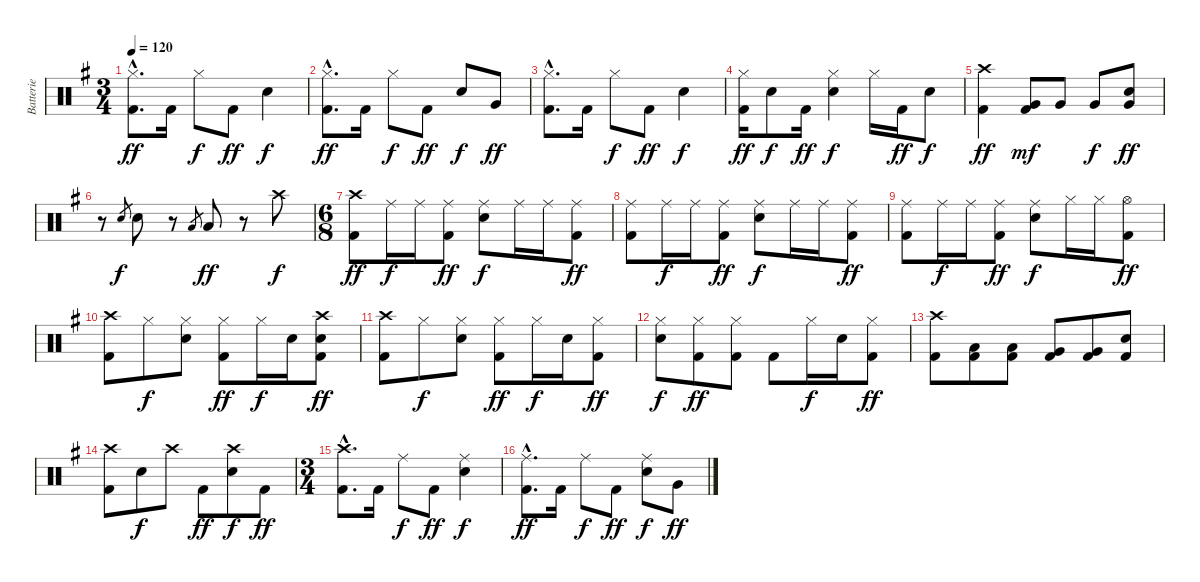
\track ("Batterie" "Batterie") {instrument percussion}
\staff {score}
\articulation defaults
\ts (3 4)
\tempo 120
\clef neutral
\ks g
("Hi-Hat (closed)"{hac} "Kick (hit) 2"{hac}).8{d dy ff} "Kick (hit) 2".16 "Hi-Hat (closed)".8{dy f} "Kick (hit) 2".8{dy ff} "Snare (hit) 2".4{dy f} |
("Hi-Hat (closed)"{hac} "Kick (hit) 2"{hac}).8{d dy ff} "Kick (hit) 2".16 "Hi-Hat (closed)".8{dy f} "Kick (hit) 2".8{dy ff} "Snare (hit) 2".8{dy f} "Very Low Tom (hit)".8{dy ff} |
("Hi-Hat (closed)"{hac} "Kick (hit) 2"{hac}).8{d} "Kick (hit) 2".16 "Hi-Hat (closed)".8{dy f} "Kick (hit) 2".8{dy ff} "Snare (hit) 2".4{dy f} |
("Hi-Hat (closed)" "Kick (hit) 2").16{dy ff} "Snare (hit) 2".8{dy f} "Kick (hit) 2".16{dy ff} ("Hi-Hat (closed)" "Snare (hit) 2").4{dy f} "Hi-Hat (closed)".16 "Kick (hit) 2".16{dy ff} "Snare (hit) 2".8{dy f} |
("Crash high (hit)" "Kick (hit) 2").4{dy ff} ("Very Low Tom (hit)" "Kick (hit) 2").8{dy mf} "Very Low Tom (hit)".8 "Very Low Tom (hit)".8{dy f} ("Snare (hit) 2" "Very Low Tom (hit)").8{dy ff} |
r.8 "Snare (hit) 2".8{gr dy f} "Snare (hit) 2".8 r.8 "Low Tom (hit)".8{gr} "Low Tom (hit)".8{dy ff} r.8 "Crash high (hit)".8{dy f} |
\ts (6 8)
("Crash high (hit)" "Kick (hit) 2").8{dy ff} "Ride (middle)".16{dy f} "Ride (middle)".16 ("Ride (middle)" "Kick (hit) 2").8{dy ff} ("Ride (middle)" "Snare (hit) 2").8{dy f} "Ride (middle)".16 "Ride (middle)".16 ("Ride (middle)" "Kick (hit) 2").8{dy ff} |
("Ride (middle)" "Kick (hit) 2").8 "Ride (middle)".16{dy f} "Ride (middle)".16 ("Ride (middle)" "Kick (hit) 2").8{dy ff} ("Ride (middle)" "Snare (hit) 2").8{dy f} "Ride (middle)".16 "Ride (middle)".16 ("Ride (middle)" "Kick (hit) 2").8{dy ff} |
("Ride (middle)" "Kick (hit) 2").8 "Ride (middle)".16{dy f} "Ride (middle)".16 ("Ride (middle)" "Kick (hit) 2").8{dy ff} ("Ride (middle)" "Snare (hit) 2").8{dy f} "Hi-Hat (closed)".16 "Hi-Hat (closed)".16 ("Hi-Hat (open)" "Kick (hit) 2").8{dy ff} |
("Crash high (hit)" "Kick (hit) 2").8 "Hi-Hat (closed)".8{dy f} ("Hi-Hat (closed)" "Snare (hit) 2").8 ("Hi-Hat (closed)" "Kick (hit) 2").8{dy ff} "Hi-Hat (closed)".16{dy f} "Snare (hit) 2".16 ("Crash high (hit)" "Snare (hit) 2" "Kick (hit) 2").8{dy ff} |
("Crash high (hit)" "Kick (hit) 2").8 "Hi-Hat (closed)".8{dy f} ("Hi-Hat (closed)" "Snare (hit) 2").8 ("Hi-Hat (closed)" "Kick (hit) 2").8{dy ff} "Hi-Hat (closed)".16{dy f} "Snare (hit) 2".16 ("Hi-Hat (closed)" "Kick (hit) 2").8{dy ff} |
("Hi-Hat (closed)" "Snare (hit) 2").8{dy f} ("Hi-Hat (closed)" "Kick (hit) 2").8{dy ff} ("Hi-Hat (closed)" "Kick (hit) 2").8 "Kick (hit) 2".8 "Hi-Hat (closed)".16{dy f} "Snare (hit) 2".16 ("Hi-Hat (closed)" "Kick (hit) 2").8{dy ff} |
("Crash high (hit)" "Kick (hit) 2").8 ("Low Tom (hit)" "Kick (hit) 2").8 ("Low Tom (hit)" "Kick (hit) 2").8 ("Very Low Tom (hit)" "Kick (hit) 2").8 ("Very Low Tom (hit)" "Kick (hit) 2").8 ("Snare (hit) 2" "Kick (hit) 2").8 |
("Crash high (hit)" "Kick (hit) 2").8 "Snare (hit) 2".8{dy f} "Crash high (hit)".8 "Kick (hit) 2".8{dy ff} ("Crash high (hit)" "Snare (hit) 2").8{dy f} "Kick (hit) 2".8{dy ff} |
\ts (3 4)
("Crash high (hit)"{hac} "Kick (hit) 2"{hac}).8{d} "Kick (hit) 2".16 "Ride (middle)".8{dy f} "Kick (hit) 2".8{dy ff} ("Ride (middle)" "Snare (hit) 2").4{dy f} |
("Ride (middle)"{hac} "Kick (hit) 2"{hac}).8{d dy ff} "Kick (hit) 2".16 "Ride (middle)".8{dy f} "Kick (hit) 2".8{dy ff} ("Ride (middle)" "Snare (hit) 2").8{dy f} "Very Low Tom (hit)".8{dy ff}
